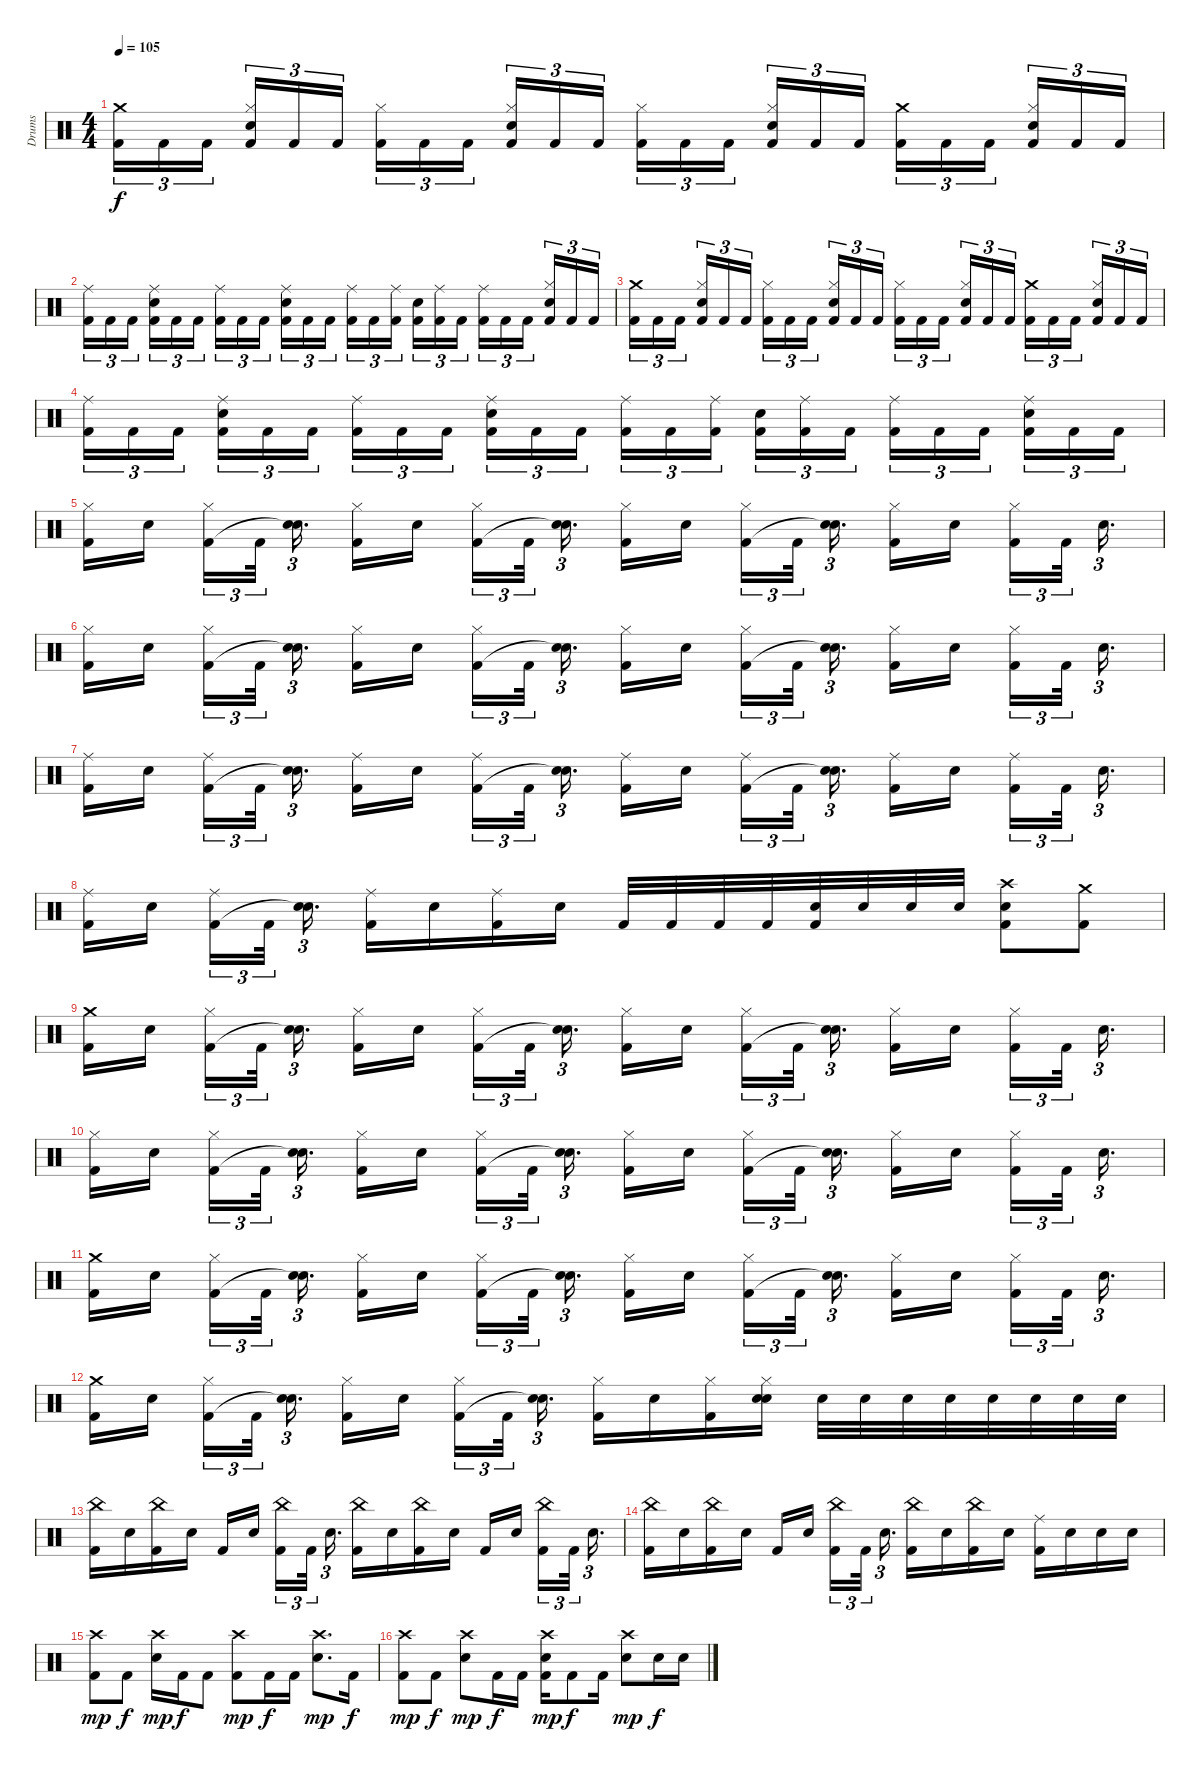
\track ("Drums" "Drums") {instrument percussion}
\staff {score}
\articulation defaults
\ts (4 4)
\tempo 105
\clef neutral
\ks c
("Crash medium (hit)" "Kick (hit) 2").16{tu (3 2) dy f} "Kick (hit) 2".16{tu (3 2)} "Kick (hit) 2".16{tu (3 2)} ("Hi-Hat (closed)" "Electric Snare (hit)" "Kick (hit) 2").16{tu (3 2)} "Kick (hit) 2".16{tu (3 2)} "Kick (hit) 2".16{tu (3 2)} ("Hi-Hat (closed)" "Kick (hit) 2").16{tu (3 2)} "Kick (hit) 2".16{tu (3 2)} "Kick (hit) 2".16{tu (3 2)} ("Hi-Hat (closed)" "Electric Snare (hit)" "Kick (hit) 2").16{tu (3 2)} "Kick (hit) 2".16{tu (3 2)} "Kick (hit) 2".16{tu (3 2)} ("Hi-Hat (closed)" "Kick (hit) 2").16{tu (3 2)} "Kick (hit) 2".16{tu (3 2)} "Kick (hit) 2".16{tu (3 2)} ("Hi-Hat (closed)" "Electric Snare (hit)" "Kick (hit) 2").16{tu (3 2)} "Kick (hit) 2".16{tu (3 2)} "Kick (hit) 2".16{tu (3 2)} ("Crash medium (hit)" "Kick (hit) 2").16{tu (3 2)} "Kick (hit) 2".16{tu (3 2)} "Kick (hit) 2".16{tu (3 2)} ("Hi-Hat (closed)" "Electric Snare (hit)" "Kick (hit) 2").16{tu (3 2)} "Kick (hit) 2".16{tu (3 2)} "Kick (hit) 2".16{tu (3 2)} |
("Ride (middle)" "Kick (hit) 2").16{tu (3 2)} "Kick (hit) 2".16{tu (3 2)} "Kick (hit) 2".16{tu (3 2)} ("Ride (middle)" "Electric Snare (hit)" "Kick (hit) 2").16{tu (3 2)} "Kick (hit) 2".16{tu (3 2)} "Kick (hit) 2".16{tu (3 2)} ("Ride (middle)" "Kick (hit) 2").16{tu (3 2)} "Kick (hit) 2".16{tu (3 2)} "Kick (hit) 2".16{tu (3 2)} ("Ride (middle)" "Electric Snare (hit)" "Kick (hit) 2").16{tu (3 2)} "Kick (hit) 2".16{tu (3 2)} "Kick (hit) 2".16{tu (3 2)} ("Ride (middle)" "Kick (hit) 2").16{tu (3 2)} "Kick (hit) 2".16{tu (3 2)} ("Ride (middle)" "Kick (hit) 2").16{tu (3 2)} ("Electric Snare (hit)" "Kick (hit) 2").16{tu (3 2)} ("Ride (middle)" "Kick (hit) 2").16{tu (3 2)} "Kick (hit) 2".16{tu (3 2)} ("Ride (middle)" "Kick (hit) 2").16{tu (3 2)} "Kick (hit) 2".16{tu (3 2)} "Kick (hit) 2".16{tu (3 2)} ("Hi-Hat (closed)" "Electric Snare (hit)" "Kick (hit) 2").16{tu (3 2)} "Kick (hit) 2".16{tu (3 2)} "Kick (hit) 2".16{tu (3 2)} |
("Crash medium (hit)" "Kick (hit) 2").16{tu (3 2)} "Kick (hit) 2".16{tu (3 2)} "Kick (hit) 2".16{tu (3 2)} ("Hi-Hat (closed)" "Electric Snare (hit)" "Kick (hit) 2").16{tu (3 2)} "Kick (hit) 2".16{tu (3 2)} "Kick (hit) 2".16{tu (3 2)} ("Hi-Hat (closed)" "Kick (hit) 2").16{tu (3 2)} "Kick (hit) 2".16{tu (3 2)} "Kick (hit) 2".16{tu (3 2)} ("Hi-Hat (closed)" "Electric Snare (hit)" "Kick (hit) 2").16{tu (3 2)} "Kick (hit) 2".16{tu (3 2)} "Kick (hit) 2".16{tu (3 2)} ("Hi-Hat (closed)" "Kick (hit) 2").16{tu (3 2)} "Kick (hit) 2".16{tu (3 2)} "Kick (hit) 2".16{tu (3 2)} ("Hi-Hat (closed)" "Electric Snare (hit)" "Kick (hit) 2").16{tu (3 2)} "Kick (hit) 2".16{tu (3 2)} "Kick (hit) 2".16{tu (3 2)} ("Crash medium (hit)" "Kick (hit) 2").16{tu (3 2)} "Kick (hit) 2".16{tu (3 2)} "Kick (hit) 2".16{tu (3 2)} ("Hi-Hat (closed)" "Electric Snare (hit)" "Kick (hit) 2").16{tu (3 2)} "Kick (hit) 2".16{tu (3 2)} "Kick (hit) 2".16{tu (3 2)} |
("Ride (middle)" "Kick (hit) 2").16{tu (3 2)} "Kick (hit) 2".16{tu (3 2)} "Kick (hit) 2".16{tu (3 2)} ("Ride (middle)" "Electric Snare (hit)" "Kick (hit) 2").16{tu (3 2)} "Kick (hit) 2".16{tu (3 2)} "Kick (hit) 2".16{tu (3 2)} ("Ride (middle)" "Kick (hit) 2").16{tu (3 2)} "Kick (hit) 2".16{tu (3 2)} "Kick (hit) 2".16{tu (3 2)} ("Ride (middle)" "Electric Snare (hit)" "Kick (hit) 2").16{tu (3 2)} "Kick (hit) 2".16{tu (3 2)} "Kick (hit) 2".16{tu (3 2)} ("Ride (middle)" "Kick (hit) 2").16{tu (3 2)} "Kick (hit) 2".16{tu (3 2)} ("Ride (middle)" "Kick (hit) 2").16{tu (3 2)} ("Electric Snare (hit)" "Kick (hit) 2").16{tu (3 2)} ("Ride (middle)" "Kick (hit) 2").16{tu (3 2)} "Kick (hit) 2".16{tu (3 2)} ("Ride (middle)" "Kick (hit) 2").16{tu (3 2)} "Kick (hit) 2".16{tu (3 2)} "Kick (hit) 2".16{tu (3 2)} ("Ride (middle)" "Electric Snare (hit)" "Kick (hit) 2").16{tu (3 2)} "Kick (hit) 2".16{tu (3 2)} "Kick (hit) 2".16{tu (3 2)} |
("Hi-Hat (closed)" "Kick (hit) 2").16 "Electric Snare (hit)".16 ("Hi-Hat (closed)" "Kick (hit) 2").16{tu (3 2)} "Kick (hit) 2".32{tu (3 2)} ("Electric Snare (hit)" "Snare (hit)"{t}).16{d tu (3 2)} ("Hi-Hat (closed)" "Kick (hit) 2").16 "Electric Snare (hit)".16 ("Hi-Hat (closed)" "Kick (hit) 2").16{tu (3 2)} "Kick (hit) 2".32{tu (3 2)} ("Electric Snare (hit)" "Snare (hit)"{t}).16{d tu (3 2)} ("Hi-Hat (closed)" "Kick (hit) 2").16 "Electric Snare (hit)".16 ("Hi-Hat (closed)" "Kick (hit) 2").16{tu (3 2)} "Kick (hit) 2".32{tu (3 2)} ("Electric Snare (hit)" "Snare (hit)"{t}).16{d tu (3 2)} ("Hi-Hat (closed)" "Kick (hit) 2").16 "Electric Snare (hit)".16 ("Hi-Hat (closed)" "Kick (hit) 2").16{tu (3 2)} "Kick (hit) 2".32{tu (3 2)} "Electric Snare (hit)".16{d tu (3 2)} |
("Hi-Hat (closed)" "Kick (hit) 2").16 "Electric Snare (hit)".16 ("Hi-Hat (closed)" "Kick (hit) 2").16{tu (3 2)} "Kick (hit) 2".32{tu (3 2)} ("Electric Snare (hit)" "Snare (hit)"{t}).16{d tu (3 2)} ("Hi-Hat (closed)" "Kick (hit) 2").16 "Electric Snare (hit)".16 ("Hi-Hat (closed)" "Kick (hit) 2").16{tu (3 2)} "Kick (hit) 2".32{tu (3 2)} ("Electric Snare (hit)" "Snare (hit)"{t}).16{d tu (3 2)} ("Hi-Hat (closed)" "Kick (hit) 2").16 "Electric Snare (hit)".16 ("Hi-Hat (closed)" "Kick (hit) 2").16{tu (3 2)} "Kick (hit) 2".32{tu (3 2)} ("Electric Snare (hit)" "Snare (hit)"{t}).16{d tu (3 2)} ("Hi-Hat (closed)" "Kick (hit) 2").16 "Electric Snare (hit)".16 ("Hi-Hat (closed)" "Kick (hit) 2").16{tu (3 2)} "Kick (hit) 2".32{tu (3 2)} "Electric Snare (hit)".16{d tu (3 2)} |
("Ride (middle)" "Kick (hit) 2").16 "Electric Snare (hit)".16 ("Ride (middle)" "Kick (hit) 2").16{tu (3 2)} "Kick (hit) 2".32{tu (3 2)} ("Electric Snare (hit)" "Snare (hit)"{t}).16{d tu (3 2)} ("Ride (middle)" "Kick (hit) 2").16 "Electric Snare (hit)".16 ("Ride (middle)" "Kick (hit) 2").16{tu (3 2)} "Kick (hit) 2".32{tu (3 2)} ("Electric Snare (hit)" "Snare (hit)"{t}).16{d tu (3 2)} ("Ride (middle)" "Kick (hit) 2").16 "Electric Snare (hit)".16 ("Ride (middle)" "Kick (hit) 2").16{tu (3 2)} "Kick (hit) 2".32{tu (3 2)} ("Electric Snare (hit)" "Snare (hit)"{t}).16{d tu (3 2)} ("Ride (middle)" "Kick (hit) 2").16 "Electric Snare (hit)".16 ("Ride (middle)" "Kick (hit) 2").16{tu (3 2)} "Kick (hit) 2".32{tu (3 2)} "Electric Snare (hit)".16{d tu (3 2)} |
("Ride (middle)" "Kick (hit) 2").16 "Electric Snare (hit)".16 ("Ride (middle)" "Kick (hit) 2").16{tu (3 2)} "Kick (hit) 2".32{tu (3 2)} ("Electric Snare (hit)" "Snare (hit)"{t}).16{d tu (3 2)} ("Ride (middle)" "Kick (hit) 2").16 "Electric Snare (hit)".16 ("Ride (middle)" "Kick (hit) 2").16 "Electric Snare (hit)".16 "Kick (hit) 2".32 "Kick (hit) 2".32 "Kick (hit) 2".32 "Kick (hit) 2".32 ("Electric Snare (hit)" "Kick (hit) 2").32 "Electric Snare (hit)".32 "Electric Snare (hit)".32 "Electric Snare (hit)".32 ("Crash high (hit)" "Electric Snare (hit)" "Kick (hit) 2").8 ("Crash medium (hit)" "Kick (hit) 2").8 |
("Crash medium (hit)" "Kick (hit) 2").16 "Electric Snare (hit)".16 ("Hi-Hat (closed)" "Kick (hit) 2").16{tu (3 2)} "Kick (hit) 2".32{tu (3 2)} ("Electric Snare (hit)" "Snare (hit)"{t}).16{d tu (3 2)} ("Hi-Hat (closed)" "Kick (hit) 2").16 "Electric Snare (hit)".16 ("Hi-Hat (closed)" "Kick (hit) 2").16{tu (3 2)} "Kick (hit) 2".32{tu (3 2)} ("Electric Snare (hit)" "Snare (hit)"{t}).16{d tu (3 2)} ("Hi-Hat (closed)" "Kick (hit) 2").16 "Electric Snare (hit)".16 ("Hi-Hat (closed)" "Kick (hit) 2").16{tu (3 2)} "Kick (hit) 2".32{tu (3 2)} ("Electric Snare (hit)" "Snare (hit)"{t}).16{d tu (3 2)} ("Hi-Hat (closed)" "Kick (hit) 2").16 "Electric Snare (hit)".16 ("Hi-Hat (closed)" "Kick (hit) 2").16{tu (3 2)} "Kick (hit) 2".32{tu (3 2)} "Electric Snare (hit)".16{d tu (3 2)} |
("Hi-Hat (closed)" "Kick (hit) 2").16 "Electric Snare (hit)".16 ("Hi-Hat (closed)" "Kick (hit) 2").16{tu (3 2)} "Kick (hit) 2".32{tu (3 2)} ("Electric Snare (hit)" "Snare (hit)"{t}).16{d tu (3 2)} ("Hi-Hat (closed)" "Kick (hit) 2").16 "Electric Snare (hit)".16 ("Hi-Hat (closed)" "Kick (hit) 2").16{tu (3 2)} "Kick (hit) 2".32{tu (3 2)} ("Electric Snare (hit)" "Snare (hit)"{t}).16{d tu (3 2)} ("Hi-Hat (closed)" "Kick (hit) 2").16 "Electric Snare (hit)".16 ("Hi-Hat (closed)" "Kick (hit) 2").16{tu (3 2)} "Kick (hit) 2".32{tu (3 2)} ("Electric Snare (hit)" "Snare (hit)"{t}).16{d tu (3 2)} ("Hi-Hat (closed)" "Kick (hit) 2").16 "Electric Snare (hit)".16 ("Hi-Hat (closed)" "Kick (hit) 2").16{tu (3 2)} "Kick (hit) 2".32{tu (3 2)} "Electric Snare (hit)".16{d tu (3 2)} |
("Crash medium (hit)" "Kick (hit) 2").16 "Electric Snare (hit)".16 ("Hi-Hat (closed)" "Kick (hit) 2").16{tu (3 2)} "Kick (hit) 2".32{tu (3 2)} ("Electric Snare (hit)" "Snare (hit)"{t}).16{d tu (3 2)} ("Hi-Hat (closed)" "Kick (hit) 2").16 "Electric Snare (hit)".16 ("Hi-Hat (closed)" "Kick (hit) 2").16{tu (3 2)} "Kick (hit) 2".32{tu (3 2)} ("Electric Snare (hit)" "Snare (hit)"{t}).16{d tu (3 2)} ("Hi-Hat (closed)" "Kick (hit) 2").16 "Electric Snare (hit)".16 ("Hi-Hat (closed)" "Kick (hit) 2").16{tu (3 2)} "Kick (hit) 2".32{tu (3 2)} ("Electric Snare (hit)" "Snare (hit)"{t}).16{d tu (3 2)} ("Hi-Hat (closed)" "Kick (hit) 2").16 "Electric Snare (hit)".16 ("Hi-Hat (closed)" "Kick (hit) 2").16{tu (3 2)} "Kick (hit) 2".32{tu (3 2)} "Electric Snare (hit)".16{d tu (3 2)} |
("Crash medium (hit)" "Kick (hit) 2").16 "Electric Snare (hit)".16 ("Hi-Hat (closed)" "Kick (hit) 2").16{tu (3 2)} "Kick (hit) 2".32{tu (3 2)} ("Electric Snare (hit)" "Snare (hit)"{t}).16{d tu (3 2)} ("Hi-Hat (closed)" "Kick (hit) 2").16 "Electric Snare (hit)".16 ("Hi-Hat (closed)" "Kick (hit) 2").16{tu (3 2)} "Kick (hit) 2".32{tu (3 2)} ("Electric Snare (hit)" "Snare (hit)"{t}).16{d tu (3 2)} ("Hi-Hat (closed)" "Kick (hit) 2").16 "Electric Snare (hit)".16 ("Hi-Hat (closed)" "Kick (hit) 2").16 ("Hi-Hat (closed)" "Electric Snare (hit)" "Snare (hit)").16 "Electric Snare (hit)".32 "Electric Snare (hit)".32 "Electric Snare (hit)".32 "Electric Snare (hit)".32 "Electric Snare (hit)".32 "Electric Snare (hit)".32 "Electric Snare (hit)".32 "Electric Snare (hit)".32 |
("China (hit)" "Kick (hit) 2").16 "Electric Snare (hit)".16 ("China (hit)" "Kick (hit) 2").16 "Electric Snare (hit)".16 "Kick (hit) 2".16 "Electric Snare (hit)".16 ("China (hit)" "Kick (hit) 2").16{tu (3 2)} "Kick (hit) 2".32{tu (3 2)} "Electric Snare (hit)".16{d tu (3 2)} ("China (hit)" "Kick (hit) 2").16 "Electric Snare (hit)".16 ("China (hit)" "Kick (hit) 2").16 "Electric Snare (hit)".16 "Kick (hit) 2".16 "Electric Snare (hit)".16 ("China (hit)" "Kick (hit) 2").16{tu (3 2)} "Kick (hit) 2".32{tu (3 2)} "Electric Snare (hit)".16{d tu (3 2)} |
("China (hit)" "Kick (hit) 2").16 "Electric Snare (hit)".16 ("China (hit)" "Kick (hit) 2").16 "Electric Snare (hit)".16 "Kick (hit) 2".16 "Electric Snare (hit)".16 ("China (hit)" "Kick (hit) 2").16{tu (3 2)} "Kick (hit) 2".32{tu (3 2)} "Electric Snare (hit)".16{d tu (3 2)} ("China (hit)" "Kick (hit) 2").16 "Electric Snare (hit)".16 ("China (hit)" "Kick (hit) 2").16 "Electric Snare (hit)".16 ("Ride (middle)" "Kick (hit) 2").16 "Electric Snare (hit)".16 "Electric Snare (hit)".16 "Electric Snare (hit)".16 |
("Crash high (hit)" "Kick (hit) 2").8{dy mp} "Kick (hit) 2".8{dy f} ("Crash high (hit)" "Electric Snare (hit)").16{dy mp} "Kick (hit) 2".16{dy f} "Kick (hit) 2".8 ("Crash high (hit)" "Kick (hit) 2").8{dy mp} "Kick (hit) 2".16{dy f} "Kick (hit) 2".16 ("Crash high (hit)" "Electric Snare (hit)").8{d dy mp} "Kick (hit) 2".16{dy f} |
("Crash high (hit)" "Kick (hit) 2").8{dy mp} "Kick (hit) 2".8{dy f} ("Crash high (hit)" "Electric Snare (hit)").8{dy mp} "Kick (hit) 2".16{dy f} "Kick (hit) 2".16 ("Crash high (hit)" "Electric Snare (hit)" "Kick (hit) 2").16{dy mp} "Kick (hit) 2".8{dy f} "Kick (hit) 2".16 ("Crash high (hit)" "Electric Snare (hit)").8{dy mp} "Electric Snare (hit)".16{dy f} "Electric Snare (hit)".16
